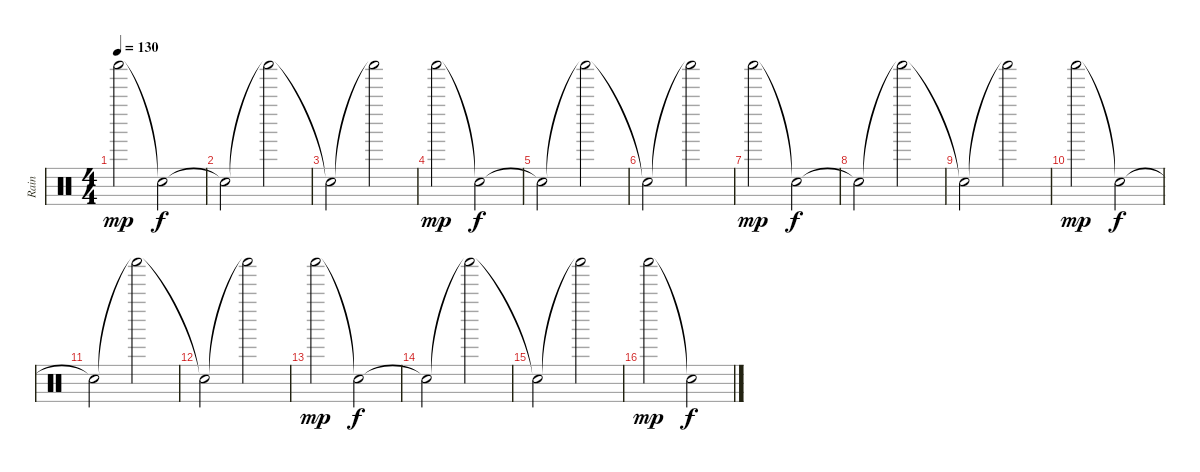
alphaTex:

\track ("Rain" "Rain") {instrument percussion}
\staff {score}
\articulation defaults
\ts (4 4)
\tempo 130
\clef neutral
\ks c "Shaker (hit)".2{dy mp} "Snare (hit)"{t}.2{dy f}
|
"Snare (hit)"{t}.2 "Shaker (hit)"{t}.2 |
"Snare (hit)"{t}.2 "Shaker (hit)"{t}.2 |
"Shaker (hit)".2{dy mp} "Snare (hit)"{t}.2{dy f} |
"Snare (hit)"{t}.2 "Shaker (hit)"{t}.2 |
"Snare (hit)"{t}.2 "Shaker (hit)"{t}.2 |
"Shaker (hit)".2{dy mp} "Snare (hit)"{t}.2{dy f} |
"Snare (hit)"{t}.2 "Shaker (hit)"{t}.2 |
"Snare (hit)"{t}.2 "Shaker (hit)"{t}.2 |
"Shaker (hit)".2{dy mp} "Snare (hit)"{t}.2{dy f} |
"Snare (hit)"{t}.2 "Shaker (hit)"{t}.2 |
"Snare (hit)"{t}.2 "Shaker (hit)"{t}.2 |
"Shaker (hit)".2{dy mp} "Snare (hit)"{t}.2{dy f} |
"Snare (hit)"{t}.2 "Shaker (hit)"{t}.2 |
"Snare (hit)"{t}.2 "Shaker (hit)"{t}.2 |
"Shaker (hit)".2{dy mp} "Snare (hit)"{t}.2{dy f}
